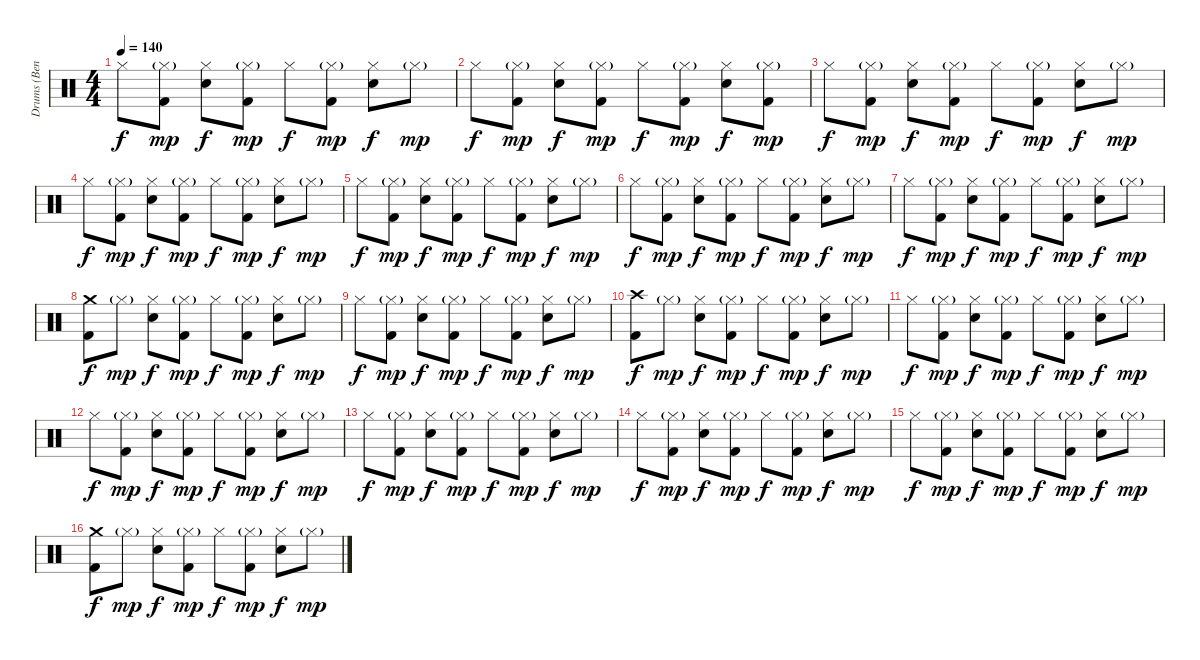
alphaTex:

\track ("Drums (Bengerg)" "Drums (Ben") {instrument percussion}
\staff {score}
\articulation defaults
\ts (4 4)
\tempo 140
\clef neutral
\ks c "Hi-Hat (closed)".8{dy f}
("Hi-Hat (closed)"{g} "Kick (hit) 2").8{dy mp} ("Hi-Hat (closed)" "Electric Snare (hit)").8{dy f} ("Hi-Hat (closed)"{g} "Kick (hit) 2").8{dy mp} "Hi-Hat (closed)".8{dy f} ("Hi-Hat (closed)"{g} "Kick (hit) 2").8{dy mp} ("Hi-Hat (closed)" "Electric Snare (hit)").8{dy f} "Hi-Hat (closed)"{g}.8{dy mp} |
"Hi-Hat (closed)".8{dy f} ("Hi-Hat (closed)"{g} "Kick (hit) 2").8{dy mp} ("Hi-Hat (closed)" "Electric Snare (hit)").8{dy f} ("Hi-Hat (closed)"{g} "Kick (hit) 2").8{dy mp} "Hi-Hat (closed)".8{dy f} ("Hi-Hat (closed)"{g} "Kick (hit) 2").8{dy mp} ("Hi-Hat (closed)" "Electric Snare (hit)").8{dy f} ("Hi-Hat (closed)"{g} "Kick (hit) 2").8{dy mp} |
"Hi-Hat (closed)".8{dy f} ("Hi-Hat (closed)"{g} "Kick (hit) 2").8{dy mp} ("Hi-Hat (closed)" "Electric Snare (hit)").8{dy f} ("Hi-Hat (closed)"{g} "Kick (hit) 2").8{dy mp} "Hi-Hat (closed)".8{dy f} ("Hi-Hat (closed)"{g} "Kick (hit) 2").8{dy mp} ("Hi-Hat (closed)" "Electric Snare (hit)").8{dy f} "Hi-Hat (closed)"{g}.8{dy mp} |
"Hi-Hat (closed)".8{dy f} ("Hi-Hat (closed)"{g} "Kick (hit) 2").8{dy mp} ("Hi-Hat (closed)" "Electric Snare (hit)").8{dy f} ("Hi-Hat (closed)"{g} "Kick (hit) 2").8{dy mp} "Hi-Hat (closed)".8{dy f} ("Hi-Hat (closed)"{g} "Kick (hit) 2").8{dy mp} ("Hi-Hat (closed)" "Electric Snare (hit)").8{dy f} "Hi-Hat (closed)"{g}.8{dy mp} |
"Hi-Hat (closed)".8{dy f} ("Hi-Hat (closed)"{g} "Kick (hit) 2").8{dy mp} ("Hi-Hat (closed)" "Electric Snare (hit)").8{dy f} ("Hi-Hat (closed)"{g} "Kick (hit) 2").8{dy mp} "Hi-Hat (closed)".8{dy f} ("Hi-Hat (closed)"{g} "Kick (hit) 2").8{dy mp} ("Hi-Hat (closed)" "Electric Snare (hit)").8{dy f} "Hi-Hat (closed)"{g}.8{dy mp} |
"Hi-Hat (closed)".8{dy f} ("Hi-Hat (closed)"{g} "Kick (hit) 2").8{dy mp} ("Hi-Hat (closed)" "Electric Snare (hit)").8{dy f} ("Hi-Hat (closed)"{g} "Kick (hit) 2").8{dy mp} "Hi-Hat (closed)".8{dy f} ("Hi-Hat (closed)"{g} "Kick (hit) 2").8{dy mp} ("Hi-Hat (closed)" "Electric Snare (hit)").8{dy f} "Hi-Hat (closed)"{g}.8{dy mp} |
"Hi-Hat (closed)".8{dy f} ("Hi-Hat (closed)"{g} "Kick (hit) 2").8{dy mp} ("Hi-Hat (closed)" "Electric Snare (hit)").8{dy f} ("Hi-Hat (closed)"{g} "Kick (hit) 2").8{dy mp} "Hi-Hat (closed)".8{dy f} ("Hi-Hat (closed)"{g} "Kick (hit) 2").8{dy mp} ("Hi-Hat (closed)" "Electric Snare (hit)").8{dy f} "Hi-Hat (closed)"{g}.8{dy mp} |
("Crash medium (hit)" "Kick (hit) 2").8{dy f} "Hi-Hat (closed)"{g}.8{dy mp} ("Hi-Hat (closed)" "Electric Snare (hit)").8{dy f} ("Hi-Hat (closed)"{g} "Kick (hit) 2").8{dy mp} "Hi-Hat (closed)".8{dy f} ("Hi-Hat (closed)"{g} "Kick (hit) 2").8{dy mp} ("Hi-Hat (closed)" "Electric Snare (hit)").8{dy f} "Hi-Hat (closed)"{g}.8{dy mp} |
"Hi-Hat (closed)".8{dy f} ("Hi-Hat (closed)"{g} "Kick (hit) 2").8{dy mp} ("Hi-Hat (closed)" "Electric Snare (hit)").8{dy f} ("Hi-Hat (closed)"{g} "Kick (hit) 2").8{dy mp} "Hi-Hat (closed)".8{dy f} ("Hi-Hat (closed)"{g} "Kick (hit) 2").8{dy mp} ("Hi-Hat (closed)" "Electric Snare (hit)").8{dy f} "Hi-Hat (closed)"{g}.8{dy mp} |
("Crash high (hit)" "Kick (hit) 2").8{dy f} "Hi-Hat (closed)"{g}.8{dy mp} ("Hi-Hat (closed)" "Electric Snare (hit)").8{dy f} ("Hi-Hat (closed)"{g} "Kick (hit) 2").8{dy mp} "Hi-Hat (closed)".8{dy f} ("Hi-Hat (closed)"{g} "Kick (hit) 2").8{dy mp} ("Hi-Hat (closed)" "Electric Snare (hit)").8{dy f} "Hi-Hat (closed)"{g}.8{dy mp} |
"Hi-Hat (closed)".8{dy f} ("Hi-Hat (closed)"{g} "Kick (hit) 2").8{dy mp} ("Hi-Hat (closed)" "Electric Snare (hit)").8{dy f} ("Hi-Hat (closed)"{g} "Kick (hit) 2").8{dy mp} "Hi-Hat (closed)".8{dy f} ("Hi-Hat (closed)"{g} "Kick (hit) 2").8{dy mp} ("Hi-Hat (closed)" "Electric Snare (hit)").8{dy f} "Hi-Hat (closed)"{g}.8{dy mp} |
"Hi-Hat (closed)".8{dy f} ("Hi-Hat (closed)"{g} "Kick (hit) 2").8{dy mp} ("Hi-Hat (closed)" "Electric Snare (hit)").8{dy f} ("Hi-Hat (closed)"{g} "Kick (hit) 2").8{dy mp} "Hi-Hat (closed)".8{dy f} ("Hi-Hat (closed)"{g} "Kick (hit) 2").8{dy mp} ("Hi-Hat (closed)" "Electric Snare (hit)").8{dy f} "Hi-Hat (closed)"{g}.8{dy mp} |
"Hi-Hat (closed)".8{dy f} ("Hi-Hat (closed)"{g} "Kick (hit) 2").8{dy mp} ("Hi-Hat (closed)" "Electric Snare (hit)").8{dy f} ("Hi-Hat (closed)"{g} "Kick (hit) 2").8{dy mp} "Hi-Hat (closed)".8{dy f} ("Hi-Hat (closed)"{g} "Kick (hit) 2").8{dy mp} ("Hi-Hat (closed)" "Electric Snare (hit)").8{dy f} "Hi-Hat (closed)"{g}.8{dy mp} |
"Hi-Hat (closed)".8{dy f} ("Hi-Hat (closed)"{g} "Kick (hit) 2").8{dy mp} ("Hi-Hat (closed)" "Electric Snare (hit)").8{dy f} ("Hi-Hat (closed)"{g} "Kick (hit) 2").8{dy mp} "Hi-Hat (closed)".8{dy f} ("Hi-Hat (closed)"{g} "Kick (hit) 2").8{dy mp} ("Hi-Hat (closed)" "Electric Snare (hit)").8{dy f} "Hi-Hat (closed)"{g}.8{dy mp} |
"Hi-Hat (closed)".8{dy f} ("Hi-Hat (closed)"{g} "Kick (hit) 2").8{dy mp} ("Hi-Hat (closed)" "Electric Snare (hit)").8{dy f} ("Hi-Hat (closed)"{g} "Kick (hit) 2").8{dy mp} "Hi-Hat (closed)".8{dy f} ("Hi-Hat (closed)"{g} "Kick (hit) 2").8{dy mp} ("Hi-Hat (closed)" "Electric Snare (hit)").8{dy f} "Hi-Hat (closed)"{g}.8{dy mp} |
("Crash medium (hit)" "Kick (hit) 2").8{dy f} "Hi-Hat (closed)"{g}.8{dy mp} ("Hi-Hat (closed)" "Electric Snare (hit)").8{dy f} ("Hi-Hat (closed)"{g} "Kick (hit) 2").8{dy mp} "Hi-Hat (closed)".8{dy f} ("Hi-Hat (closed)"{g} "Kick (hit) 2").8{dy mp} ("Hi-Hat (closed)" "Electric Snare (hit)").8{dy f} "Hi-Hat (closed)"{g}.8{dy mp}
